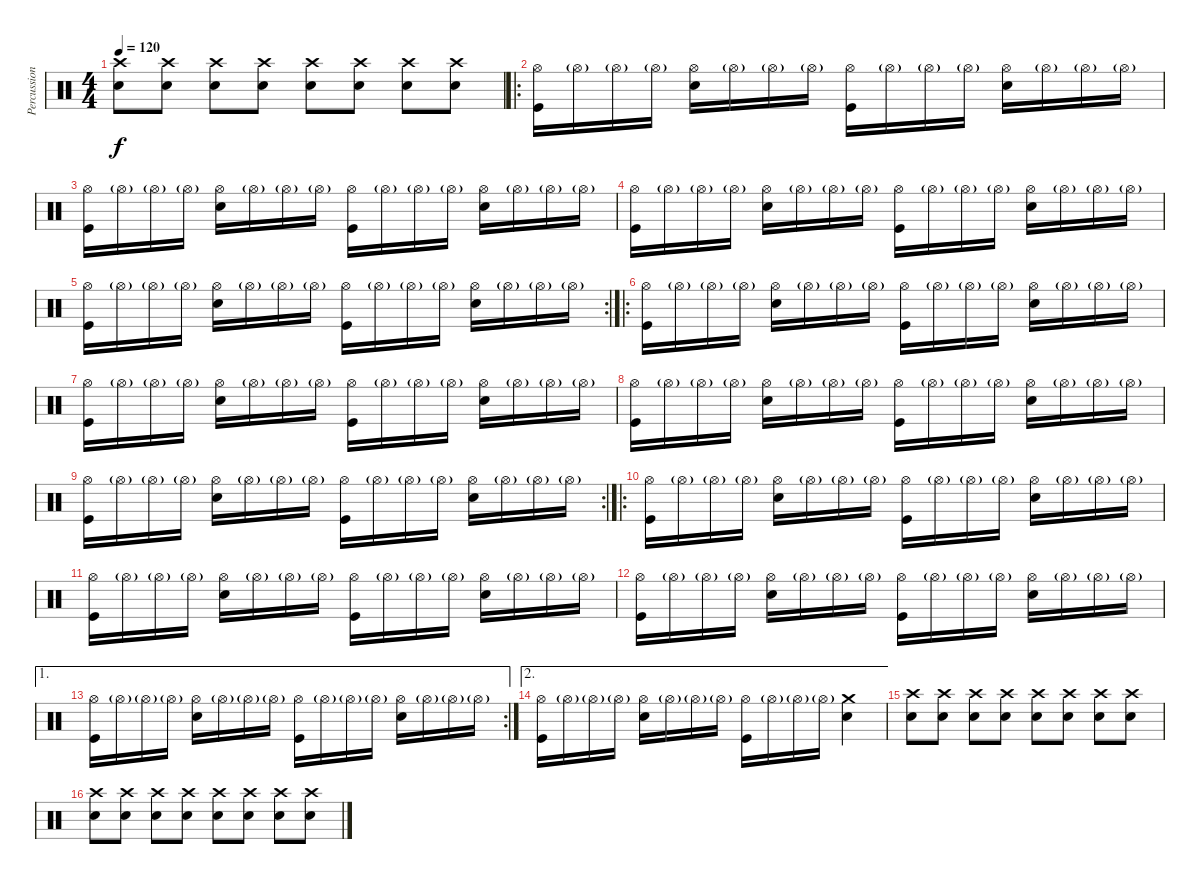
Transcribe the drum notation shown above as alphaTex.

\track ("Percussion" "Percussion") {instrument percussion}
\staff {score}
\articulation defaults
\ts (4 4)
\tempo 120
\clef neutral
\ks c
("Crash high (hit)" "Electric Snare (hit)").8{dy f} ("Crash high (hit)" "Electric Snare (hit)").8 ("Crash high (hit)" "Electric Snare (hit)").8 ("Crash high (hit)" "Electric Snare (hit)").8 ("Crash high (hit)" "Electric Snare (hit)").8 ("Crash high (hit)" "Electric Snare (hit)").8 ("Crash high (hit)" "Electric Snare (hit)").8 ("Crash high (hit)" "Electric Snare (hit)").8 |
\ro
("Hi-Hat (open)" "Kick (hit)").16 "Hi-Hat (open)"{g}.16 "Hi-Hat (open)"{g}.16 "Hi-Hat (open)"{g}.16 ("Hi-Hat (open)" "Electric Snare (hit)").16 "Hi-Hat (open)"{g}.16 "Hi-Hat (open)"{g}.16 "Hi-Hat (open)"{g}.16 ("Hi-Hat (open)" "Kick (hit)").16 "Hi-Hat (open)"{g}.16 "Hi-Hat (open)"{g}.16 "Hi-Hat (open)"{g}.16 ("Hi-Hat (open)" "Electric Snare (hit)").16 "Hi-Hat (open)"{g}.16 "Hi-Hat (open)"{g}.16 "Hi-Hat (open)"{g}.16 |
("Hi-Hat (open)" "Kick (hit)").16 "Hi-Hat (open)"{g}.16 "Hi-Hat (open)"{g}.16 "Hi-Hat (open)"{g}.16 ("Hi-Hat (open)" "Electric Snare (hit)").16 "Hi-Hat (open)"{g}.16 "Hi-Hat (open)"{g}.16 "Hi-Hat (open)"{g}.16 ("Hi-Hat (open)" "Kick (hit)").16 "Hi-Hat (open)"{g}.16 "Hi-Hat (open)"{g}.16 "Hi-Hat (open)"{g}.16 ("Hi-Hat (open)" "Electric Snare (hit)").16 "Hi-Hat (open)"{g}.16 "Hi-Hat (open)"{g}.16 "Hi-Hat (open)"{g}.16 |
("Hi-Hat (open)" "Kick (hit)").16 "Hi-Hat (open)"{g}.16 "Hi-Hat (open)"{g}.16 "Hi-Hat (open)"{g}.16 ("Hi-Hat (open)" "Electric Snare (hit)").16 "Hi-Hat (open)"{g}.16 "Hi-Hat (open)"{g}.16 "Hi-Hat (open)"{g}.16 ("Hi-Hat (open)" "Kick (hit)").16 "Hi-Hat (open)"{g}.16 "Hi-Hat (open)"{g}.16 "Hi-Hat (open)"{g}.16 ("Hi-Hat (open)" "Electric Snare (hit)").16 "Hi-Hat (open)"{g}.16 "Hi-Hat (open)"{g}.16 "Hi-Hat (open)"{g}.16 |
\rc 2
("Hi-Hat (open)" "Kick (hit)").16 "Hi-Hat (open)"{g}.16 "Hi-Hat (open)"{g}.16 "Hi-Hat (open)"{g}.16 ("Hi-Hat (open)" "Electric Snare (hit)").16 "Hi-Hat (open)"{g}.16 "Hi-Hat (open)"{g}.16 "Hi-Hat (open)"{g}.16 ("Hi-Hat (open)" "Kick (hit)").16 "Hi-Hat (open)"{g}.16 "Hi-Hat (open)"{g}.16 "Hi-Hat (open)"{g}.16 ("Hi-Hat (open)" "Electric Snare (hit)").16 "Hi-Hat (open)"{g}.16 "Hi-Hat (open)"{g}.16 "Hi-Hat (open)"{g}.16 |
\ro
("Hi-Hat (open)" "Kick (hit)").16 "Hi-Hat (open)"{g}.16 "Hi-Hat (open)"{g}.16 "Hi-Hat (open)"{g}.16 ("Hi-Hat (open)" "Electric Snare (hit)").16 "Hi-Hat (open)"{g}.16 "Hi-Hat (open)"{g}.16 "Hi-Hat (open)"{g}.16 ("Hi-Hat (open)" "Kick (hit)").16 "Hi-Hat (open)"{g}.16 "Hi-Hat (open)"{g}.16 "Hi-Hat (open)"{g}.16 ("Hi-Hat (open)" "Electric Snare (hit)").16 "Hi-Hat (open)"{g}.16 "Hi-Hat (open)"{g}.16 "Hi-Hat (open)"{g}.16 |
("Hi-Hat (open)" "Kick (hit)").16 "Hi-Hat (open)"{g}.16 "Hi-Hat (open)"{g}.16 "Hi-Hat (open)"{g}.16 ("Hi-Hat (open)" "Electric Snare (hit)").16 "Hi-Hat (open)"{g}.16 "Hi-Hat (open)"{g}.16 "Hi-Hat (open)"{g}.16 ("Hi-Hat (open)" "Kick (hit)").16 "Hi-Hat (open)"{g}.16 "Hi-Hat (open)"{g}.16 "Hi-Hat (open)"{g}.16 ("Hi-Hat (open)" "Electric Snare (hit)").16 "Hi-Hat (open)"{g}.16 "Hi-Hat (open)"{g}.16 "Hi-Hat (open)"{g}.16 |
("Hi-Hat (open)" "Kick (hit)").16 "Hi-Hat (open)"{g}.16 "Hi-Hat (open)"{g}.16 "Hi-Hat (open)"{g}.16 ("Hi-Hat (open)" "Electric Snare (hit)").16 "Hi-Hat (open)"{g}.16 "Hi-Hat (open)"{g}.16 "Hi-Hat (open)"{g}.16 ("Hi-Hat (open)" "Kick (hit)").16 "Hi-Hat (open)"{g}.16 "Hi-Hat (open)"{g}.16 "Hi-Hat (open)"{g}.16 ("Hi-Hat (open)" "Electric Snare (hit)").16 "Hi-Hat (open)"{g}.16 "Hi-Hat (open)"{g}.16 "Hi-Hat (open)"{g}.16 |
\rc 2
("Hi-Hat (open)" "Kick (hit)").16 "Hi-Hat (open)"{g}.16 "Hi-Hat (open)"{g}.16 "Hi-Hat (open)"{g}.16 ("Hi-Hat (open)" "Electric Snare (hit)").16 "Hi-Hat (open)"{g}.16 "Hi-Hat (open)"{g}.16 "Hi-Hat (open)"{g}.16 ("Hi-Hat (open)" "Kick (hit)").16 "Hi-Hat (open)"{g}.16 "Hi-Hat (open)"{g}.16 "Hi-Hat (open)"{g}.16 ("Hi-Hat (open)" "Electric Snare (hit)").16 "Hi-Hat (open)"{g}.16 "Hi-Hat (open)"{g}.16 "Hi-Hat (open)"{g}.16 |
\ro
("Hi-Hat (open)" "Kick (hit)").16 "Hi-Hat (open)"{g}.16 "Hi-Hat (open)"{g}.16 "Hi-Hat (open)"{g}.16 ("Hi-Hat (open)" "Electric Snare (hit)").16 "Hi-Hat (open)"{g}.16 "Hi-Hat (open)"{g}.16 "Hi-Hat (open)"{g}.16 ("Hi-Hat (open)" "Kick (hit)").16 "Hi-Hat (open)"{g}.16 "Hi-Hat (open)"{g}.16 "Hi-Hat (open)"{g}.16 ("Hi-Hat (open)" "Electric Snare (hit)").16 "Hi-Hat (open)"{g}.16 "Hi-Hat (open)"{g}.16 "Hi-Hat (open)"{g}.16 |
("Hi-Hat (open)" "Kick (hit)").16 "Hi-Hat (open)"{g}.16 "Hi-Hat (open)"{g}.16 "Hi-Hat (open)"{g}.16 ("Hi-Hat (open)" "Electric Snare (hit)").16 "Hi-Hat (open)"{g}.16 "Hi-Hat (open)"{g}.16 "Hi-Hat (open)"{g}.16 ("Hi-Hat (open)" "Kick (hit)").16 "Hi-Hat (open)"{g}.16 "Hi-Hat (open)"{g}.16 "Hi-Hat (open)"{g}.16 ("Hi-Hat (open)" "Electric Snare (hit)").16 "Hi-Hat (open)"{g}.16 "Hi-Hat (open)"{g}.16 "Hi-Hat (open)"{g}.16 |
("Hi-Hat (open)" "Kick (hit)").16 "Hi-Hat (open)"{g}.16 "Hi-Hat (open)"{g}.16 "Hi-Hat (open)"{g}.16 ("Hi-Hat (open)" "Electric Snare (hit)").16 "Hi-Hat (open)"{g}.16 "Hi-Hat (open)"{g}.16 "Hi-Hat (open)"{g}.16 ("Hi-Hat (open)" "Kick (hit)").16 "Hi-Hat (open)"{g}.16 "Hi-Hat (open)"{g}.16 "Hi-Hat (open)"{g}.16 ("Hi-Hat (open)" "Electric Snare (hit)").16 "Hi-Hat (open)"{g}.16 "Hi-Hat (open)"{g}.16 "Hi-Hat (open)"{g}.16 |
\ae 1
\rc 2
("Hi-Hat (open)" "Kick (hit)").16 "Hi-Hat (open)"{g}.16 "Hi-Hat (open)"{g}.16 "Hi-Hat (open)"{g}.16 ("Hi-Hat (open)" "Electric Snare (hit)").16 "Hi-Hat (open)"{g}.16 "Hi-Hat (open)"{g}.16 "Hi-Hat (open)"{g}.16 ("Hi-Hat (open)" "Kick (hit)").16 "Hi-Hat (open)"{g}.16 "Hi-Hat (open)"{g}.16 "Hi-Hat (open)"{g}.16 ("Hi-Hat (open)" "Electric Snare (hit)").16 "Hi-Hat (open)"{g}.16 "Hi-Hat (open)"{g}.16 "Hi-Hat (open)"{g}.16 |
\ae 2
("Hi-Hat (open)" "Kick (hit)").16 "Hi-Hat (open)"{g}.16 "Hi-Hat (open)"{g}.16 "Hi-Hat (open)"{g}.16 ("Hi-Hat (open)" "Electric Snare (hit)").16 "Hi-Hat (open)"{g}.16 "Hi-Hat (open)"{g}.16 "Hi-Hat (open)"{g}.16 ("Hi-Hat (open)" "Kick (hit)").16 "Hi-Hat (open)"{g}.16 "Hi-Hat (open)"{g}.16 "Hi-Hat (open)"{g}.16 ("Crash medium (hit)" "Electric Snare (hit)").4 |
("Crash high (hit)" "Electric Snare (hit)").8 ("Crash high (hit)" "Electric Snare (hit)").8 ("Crash high (hit)" "Electric Snare (hit)").8 ("Crash high (hit)" "Electric Snare (hit)").8 ("Crash high (hit)" "Electric Snare (hit)").8 ("Crash high (hit)" "Electric Snare (hit)").8 ("Crash high (hit)" "Electric Snare (hit)").8 ("Crash high (hit)" "Electric Snare (hit)").8 |
("Crash high (hit)" "Electric Snare (hit)").8 ("Crash high (hit)" "Electric Snare (hit)").8 ("Crash high (hit)" "Electric Snare (hit)").8 ("Crash high (hit)" "Electric Snare (hit)").8 ("Crash high (hit)" "Electric Snare (hit)").8 ("Crash high (hit)" "Electric Snare (hit)").8 ("Crash high (hit)" "Electric Snare (hit)").8 ("Crash high (hit)" "Electric Snare (hit)").8
